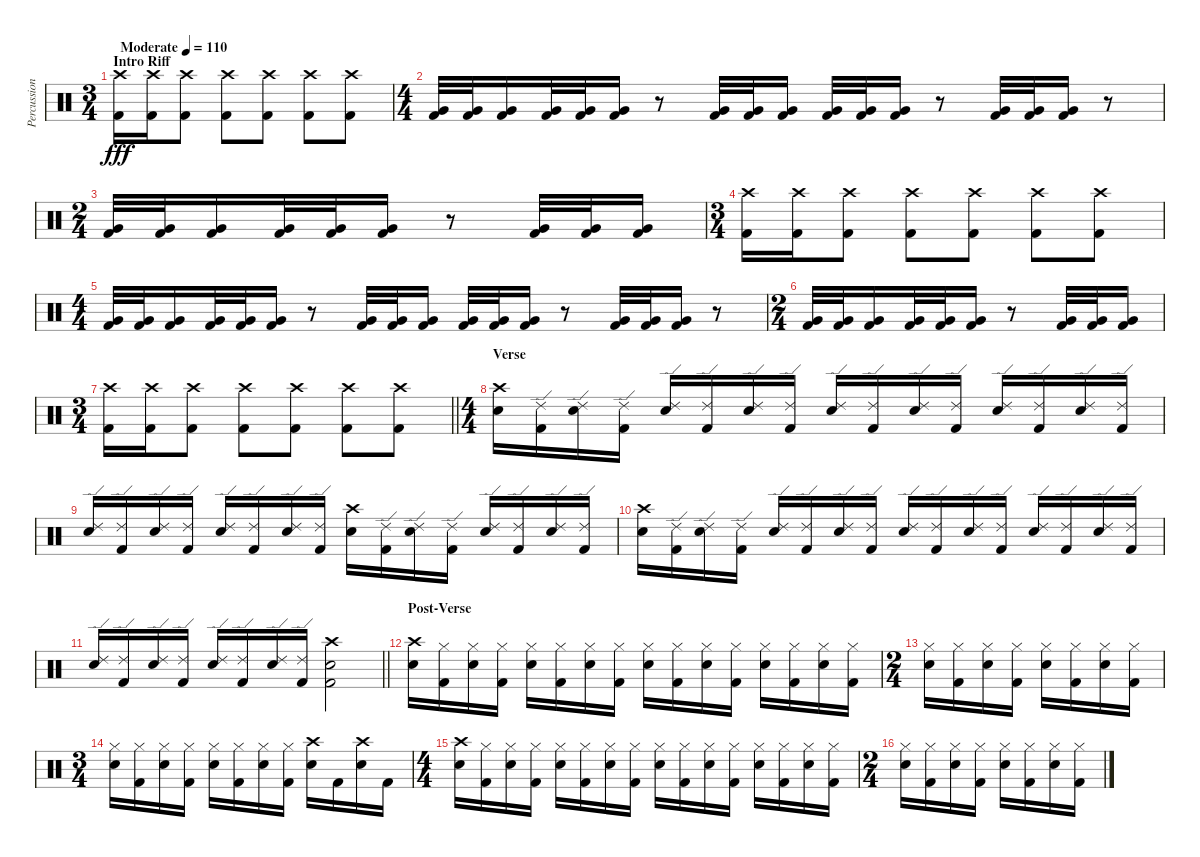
\track ("Percussion" "Percussion") {instrument percussion}
\staff {score}
\articulation defaults
\ts (3 4)
\section ("" "Intro Riff")
\tempo (110 "Moderate")
\clef neutral
\ks c
("Crash high (hit)" "Kick (hit) 2").16{dy fff} ("Crash high (hit)" "Kick (hit) 2").16 ("Crash high (hit)" "Kick (hit) 2").8 ("Crash high (hit)" "Kick (hit) 2").8 ("Crash high (hit)" "Kick (hit) 2").8 ("Crash high (hit)" "Kick (hit) 2").8 ("Crash high (hit)" "Kick (hit) 2").8 |
\ts (4 4)
("Very Low Tom (hit)" "Kick (hit) 2").32 ("Very Low Tom (hit)" "Kick (hit) 2").32 ("Very Low Tom (hit)" "Kick (hit) 2").16 ("Very Low Tom (hit)" "Kick (hit) 2").32 ("Very Low Tom (hit)" "Kick (hit) 2").32 ("Very Low Tom (hit)" "Kick (hit) 2").16 r.8 ("Very Low Tom (hit)" "Kick (hit) 2").32 ("Very Low Tom (hit)" "Kick (hit) 2").32 ("Very Low Tom (hit)" "Kick (hit) 2").16 ("Very Low Tom (hit)" "Kick (hit) 2").32 ("Very Low Tom (hit)" "Kick (hit) 2").32 ("Very Low Tom (hit)" "Kick (hit) 2").16 r.8 ("Very Low Tom (hit)" "Kick (hit) 2").32 ("Very Low Tom (hit)" "Kick (hit) 2").32 ("Very Low Tom (hit)" "Kick (hit) 2").16 r.8 |
\ts (2 4)
("Very Low Tom (hit)" "Kick (hit) 2").32 ("Very Low Tom (hit)" "Kick (hit) 2").32 ("Very Low Tom (hit)" "Kick (hit) 2").16 ("Very Low Tom (hit)" "Kick (hit) 2").32 ("Very Low Tom (hit)" "Kick (hit) 2").32 ("Very Low Tom (hit)" "Kick (hit) 2").16 r.8 ("Very Low Tom (hit)" "Kick (hit) 2").32 ("Very Low Tom (hit)" "Kick (hit) 2").32 ("Very Low Tom (hit)" "Kick (hit) 2").16 |
\ts (3 4)
("Crash high (hit)" "Kick (hit) 2").16 ("Crash high (hit)" "Kick (hit) 2").16 ("Crash high (hit)" "Kick (hit) 2").8 ("Crash high (hit)" "Kick (hit) 2").8 ("Crash high (hit)" "Kick (hit) 2").8 ("Crash high (hit)" "Kick (hit) 2").8 ("Crash high (hit)" "Kick (hit) 2").8 |
\ts (4 4)
("Very Low Tom (hit)" "Kick (hit) 2").32 ("Very Low Tom (hit)" "Kick (hit) 2").32 ("Very Low Tom (hit)" "Kick (hit) 2").16 ("Very Low Tom (hit)" "Kick (hit) 2").32 ("Very Low Tom (hit)" "Kick (hit) 2").32 ("Very Low Tom (hit)" "Kick (hit) 2").16 r.8 ("Very Low Tom (hit)" "Kick (hit) 2").32 ("Very Low Tom (hit)" "Kick (hit) 2").32 ("Very Low Tom (hit)" "Kick (hit) 2").16 ("Very Low Tom (hit)" "Kick (hit) 2").32 ("Very Low Tom (hit)" "Kick (hit) 2").32 ("Very Low Tom (hit)" "Kick (hit) 2").16 r.8 ("Very Low Tom (hit)" "Kick (hit) 2").32 ("Very Low Tom (hit)" "Kick (hit) 2").32 ("Very Low Tom (hit)" "Kick (hit) 2").16 r.8 |
\ts (2 4)
("Very Low Tom (hit)" "Kick (hit) 2").32 ("Very Low Tom (hit)" "Kick (hit) 2").32 ("Very Low Tom (hit)" "Kick (hit) 2").16 ("Very Low Tom (hit)" "Kick (hit) 2").32 ("Very Low Tom (hit)" "Kick (hit) 2").32 ("Very Low Tom (hit)" "Kick (hit) 2").16 r.8 ("Very Low Tom (hit)" "Kick (hit) 2").32 ("Very Low Tom (hit)" "Kick (hit) 2").32 ("Very Low Tom (hit)" "Kick (hit) 2").16 |
\ts (3 4)
\barLineRight lightlight
("Crash high (hit)" "Kick (hit) 2").16 ("Crash high (hit)" "Kick (hit) 2").16 ("Crash high (hit)" "Kick (hit) 2").8 ("Crash high (hit)" "Kick (hit) 2").8 ("Crash high (hit)" "Kick (hit) 2").8 ("Crash high (hit)" "Kick (hit) 2").8 ("Crash high (hit)" "Kick (hit) 2").8 |
\ts (4 4)
\section ("" "Verse")
("Crash high (hit)" "Snare (hit) 2").16 ("Ride (edge) 2" "Kick (hit) 2").16 ("Ride (edge) 2" "Snare (hit) 2").16 ("Ride (edge) 2" "Kick (hit) 2").16 ("Ride (edge) 2" "Snare (hit) 2").16 ("Ride (edge) 2" "Kick (hit) 2").16 ("Ride (edge) 2" "Snare (hit) 2").16 ("Ride (edge) 2" "Kick (hit) 2").16 ("Ride (edge) 2" "Snare (hit) 2").16 ("Ride (edge) 2" "Kick (hit) 2").16 ("Ride (edge) 2" "Snare (hit) 2").16 ("Ride (edge) 2" "Kick (hit) 2").16 ("Ride (edge) 2" "Snare (hit) 2").16 ("Ride (edge) 2" "Kick (hit) 2").16 ("Ride (edge) 2" "Snare (hit) 2").16 ("Ride (edge) 2" "Kick (hit) 2").16 |
("Ride (edge) 2" "Snare (hit) 2").16 ("Ride (edge) 2" "Kick (hit) 2").16 ("Ride (edge) 2" "Snare (hit) 2").16 ("Ride (edge) 2" "Kick (hit) 2").16 ("Ride (edge) 2" "Snare (hit) 2").16 ("Ride (edge) 2" "Kick (hit) 2").16 ("Ride (edge) 2" "Snare (hit) 2").16 ("Ride (edge) 2" "Kick (hit) 2").16 ("Crash high (hit)" "Snare (hit) 2").16 ("Ride (edge) 2" "Kick (hit) 2").16 ("Ride (edge) 2" "Snare (hit) 2").16 ("Ride (edge) 2" "Kick (hit) 2").16 ("Ride (edge) 2" "Snare (hit) 2").16 ("Ride (edge) 2" "Kick (hit) 2").16 ("Ride (edge) 2" "Snare (hit) 2").16 ("Ride (edge) 2" "Kick (hit) 2").16 |
("Crash high (hit)" "Snare (hit) 2").16 ("Ride (edge) 2" "Kick (hit) 2").16 ("Ride (edge) 2" "Snare (hit) 2").16 ("Ride (edge) 2" "Kick (hit) 2").16 ("Ride (edge) 2" "Snare (hit) 2").16 ("Ride (edge) 2" "Kick (hit) 2").16 ("Ride (edge) 2" "Snare (hit) 2").16 ("Ride (edge) 2" "Kick (hit) 2").16 ("Ride (edge) 2" "Snare (hit) 2").16 ("Ride (edge) 2" "Kick (hit) 2").16 ("Ride (edge) 2" "Snare (hit) 2").16 ("Ride (edge) 2" "Kick (hit) 2").16 ("Ride (edge) 2" "Snare (hit) 2").16 ("Ride (edge) 2" "Kick (hit) 2").16 ("Ride (edge) 2" "Snare (hit) 2").16 ("Ride (edge) 2" "Kick (hit) 2").16 |
\barLineRight lightlight
("Ride (edge) 2" "Snare (hit) 2").16 ("Ride (edge) 2" "Kick (hit) 2").16 ("Ride (edge) 2" "Snare (hit) 2").16 ("Ride (edge) 2" "Kick (hit) 2").16 ("Ride (edge) 2" "Snare (hit) 2").16 ("Ride (edge) 2" "Kick (hit) 2").16 ("Ride (edge) 2" "Snare (hit) 2").16 ("Ride (edge) 2" "Kick (hit) 2").16 ("Crash high (hit)" "Snare (hit) 2" "Kick (hit) 2").2 |
\section ("" "Post-Verse")
("Crash high (hit)" "Snare (hit) 2").16 ("Hi-Hat (closed)" "Kick (hit) 2").16 ("Hi-Hat (closed)" "Snare (hit) 2").16 ("Hi-Hat (closed)" "Kick (hit) 2").16 ("Hi-Hat (closed)" "Snare (hit) 2").16 ("Hi-Hat (closed)" "Kick (hit) 2").16 ("Hi-Hat (closed)" "Snare (hit) 2").16 ("Hi-Hat (closed)" "Kick (hit) 2").16 ("Hi-Hat (closed)" "Snare (hit) 2").16 ("Hi-Hat (closed)" "Kick (hit) 2").16 ("Hi-Hat (closed)" "Snare (hit) 2").16 ("Hi-Hat (closed)" "Kick (hit) 2").16 ("Hi-Hat (closed)" "Snare (hit) 2").16 ("Hi-Hat (closed)" "Kick (hit) 2").16 ("Hi-Hat (closed)" "Snare (hit) 2").16 ("Hi-Hat (closed)" "Kick (hit) 2").16 |
\ts (2 4)
("Hi-Hat (closed)" "Snare (hit) 2").16 ("Hi-Hat (closed)" "Kick (hit) 2").16 ("Hi-Hat (closed)" "Snare (hit) 2").16 ("Hi-Hat (closed)" "Kick (hit) 2").16 ("Hi-Hat (closed)" "Snare (hit) 2").16 ("Hi-Hat (closed)" "Kick (hit) 2").16 ("Hi-Hat (closed)" "Snare (hit) 2").16 ("Hi-Hat (closed)" "Kick (hit) 2").16 |
\ts (3 4)
("Hi-Hat (closed)" "Snare (hit) 2").16 ("Hi-Hat (closed)" "Kick (hit) 2").16 ("Hi-Hat (closed)" "Snare (hit) 2").16 ("Hi-Hat (closed)" "Kick (hit) 2").16 ("Hi-Hat (closed)" "Snare (hit) 2").16 ("Hi-Hat (closed)" "Kick (hit) 2").16 ("Hi-Hat (closed)" "Snare (hit) 2").16 ("Hi-Hat (closed)" "Kick (hit) 2").16 ("Crash high (hit)" "Snare (hit) 2").16 "Kick (hit) 2".16 ("Crash high (hit)" "Snare (hit) 2").16 "Kick (hit) 2".16 |
\ts (4 4)
("Crash high (hit)" "Snare (hit) 2").16 ("Hi-Hat (closed)" "Kick (hit) 2").16 ("Hi-Hat (closed)" "Snare (hit) 2").16 ("Hi-Hat (closed)" "Kick (hit) 2").16 ("Hi-Hat (closed)" "Snare (hit) 2").16 ("Hi-Hat (closed)" "Kick (hit) 2").16 ("Hi-Hat (closed)" "Snare (hit) 2").16 ("Hi-Hat (closed)" "Kick (hit) 2").16 ("Hi-Hat (closed)" "Snare (hit) 2").16 ("Hi-Hat (closed)" "Kick (hit) 2").16 ("Hi-Hat (closed)" "Snare (hit) 2").16 ("Hi-Hat (closed)" "Kick (hit) 2").16 ("Hi-Hat (closed)" "Snare (hit) 2").16 ("Hi-Hat (closed)" "Kick (hit) 2").16 ("Hi-Hat (closed)" "Snare (hit) 2").16 ("Hi-Hat (closed)" "Kick (hit) 2").16 |
\ts (2 4)
("Hi-Hat (closed)" "Snare (hit) 2").16 ("Hi-Hat (closed)" "Kick (hit) 2").16 ("Hi-Hat (closed)" "Snare (hit) 2").16 ("Hi-Hat (closed)" "Kick (hit) 2").16 ("Hi-Hat (closed)" "Snare (hit) 2").16 ("Hi-Hat (closed)" "Kick (hit) 2").16 ("Hi-Hat (closed)" "Snare (hit) 2").16 ("Hi-Hat (closed)" "Kick (hit) 2").16
